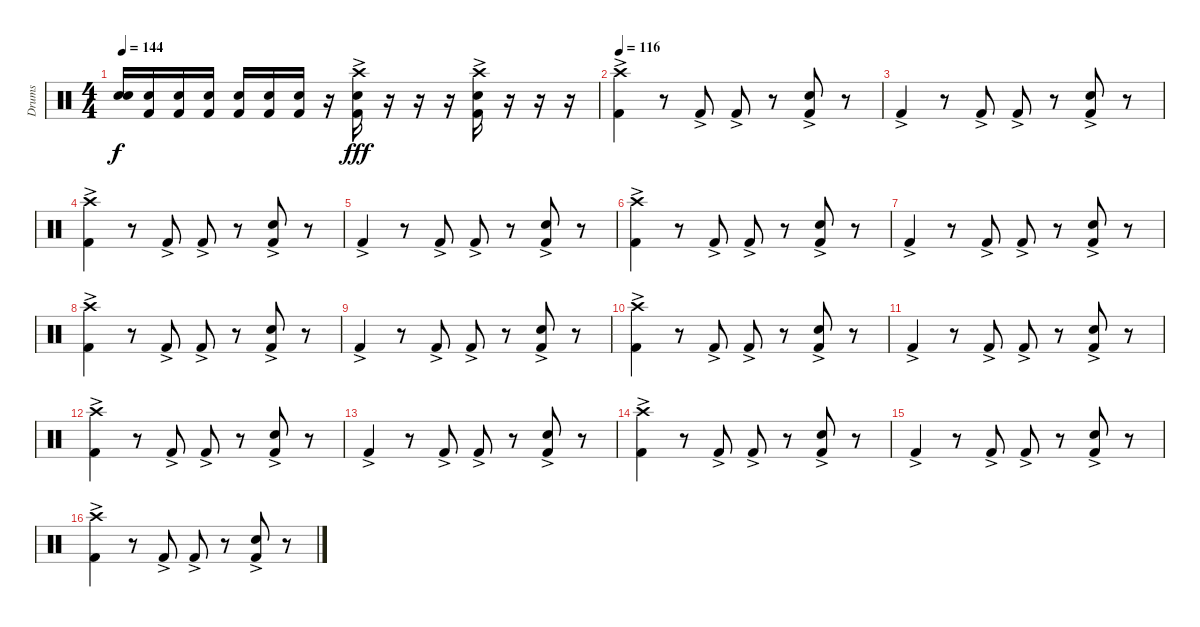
\track ("Drums" "Drums") {instrument percussion}
\staff {score}
\articulation defaults
\ts (4 4)
\tempo 144
\clef neutral
\ks c
("Electric Snare (hit)" "Electric Snare (hit)").16{dy f} ("Electric Snare (hit)" "Kick (hit) 2").16 ("Electric Snare (hit)" "Kick (hit) 2").16 ("Electric Snare (hit)" "Kick (hit) 2").16 ("Electric Snare (hit)" "Kick (hit) 2").16 ("Electric Snare (hit)" "Kick (hit) 2").16 ("Electric Snare (hit)" "Kick (hit) 2").16 r.16 ("Crash high (hit)"{ac} "Electric Snare (hit)"{ac} "Kick (hit) 2"{ac}).16{dy fff} r.16 r.16 r.16 ("Crash high (hit)"{ac} "Electric Snare (hit)"{ac} "Kick (hit) 2"{ac}).16 r.16 r.16 r.16 |
\tempo 116
("Crash high (hit)"{ac} "Kick (hit) 2"{ac}).4 r.8 "Kick (hit) 2"{ac}.8 "Kick (hit) 2"{ac}.8 r.8 ("Electric Snare (hit)"{ac} "Kick (hit) 2"{ac}).8 r.8 |
"Kick (hit) 2"{ac}.4 r.8 "Kick (hit) 2"{ac}.8 "Kick (hit) 2"{ac}.8 r.8 ("Electric Snare (hit)"{ac} "Kick (hit) 2"{ac}).8 r.8 |
("Crash high (hit)" "Kick (hit) 2"{ac}).4 r.8 "Kick (hit) 2"{ac}.8 "Kick (hit) 2"{ac}.8 r.8 ("Electric Snare (hit)"{ac} "Kick (hit) 2"{ac}).8 r.8 |
"Kick (hit) 2"{ac}.4 r.8 "Kick (hit) 2"{ac}.8 "Kick (hit) 2"{ac}.8 r.8 ("Electric Snare (hit)"{ac} "Kick (hit) 2"{ac}).8 r.8 |
("Crash high (hit)" "Kick (hit) 2"{ac}).4 r.8 "Kick (hit) 2"{ac}.8 "Kick (hit) 2"{ac}.8 r.8 ("Electric Snare (hit)"{ac} "Kick (hit) 2"{ac}).8 r.8 |
"Kick (hit) 2"{ac}.4 r.8 "Kick (hit) 2"{ac}.8 "Kick (hit) 2"{ac}.8 r.8 ("Electric Snare (hit)"{ac} "Kick (hit) 2"{ac}).8 r.8 |
("Crash high (hit)" "Kick (hit) 2"{ac}).4 r.8 "Kick (hit) 2"{ac}.8 "Kick (hit) 2"{ac}.8 r.8 ("Electric Snare (hit)"{ac} "Kick (hit) 2"{ac}).8 r.8 |
"Kick (hit) 2"{ac}.4 r.8 "Kick (hit) 2"{ac}.8 "Kick (hit) 2"{ac}.8 r.8 ("Electric Snare (hit)"{ac} "Kick (hit) 2"{ac}).8 r.8 |
("Crash high (hit)" "Kick (hit) 2"{ac}).4 r.8 "Kick (hit) 2"{ac}.8 "Kick (hit) 2"{ac}.8 r.8 ("Electric Snare (hit)"{ac} "Kick (hit) 2"{ac}).8 r.8 |
"Kick (hit) 2"{ac}.4 r.8 "Kick (hit) 2"{ac}.8 "Kick (hit) 2"{ac}.8 r.8 ("Electric Snare (hit)"{ac} "Kick (hit) 2"{ac}).8 r.8 |
("Crash high (hit)" "Kick (hit) 2"{ac}).4 r.8 "Kick (hit) 2"{ac}.8 "Kick (hit) 2"{ac}.8 r.8 ("Electric Snare (hit)"{ac} "Kick (hit) 2"{ac}).8 r.8 |
"Kick (hit) 2"{ac}.4 r.8 "Kick (hit) 2"{ac}.8 "Kick (hit) 2"{ac}.8 r.8 ("Electric Snare (hit)"{ac} "Kick (hit) 2"{ac}).8 r.8 |
("Crash high (hit)" "Kick (hit) 2"{ac}).4 r.8 "Kick (hit) 2"{ac}.8 "Kick (hit) 2"{ac}.8 r.8 ("Electric Snare (hit)"{ac} "Kick (hit) 2"{ac}).8 r.8 |
"Kick (hit) 2"{ac}.4 r.8 "Kick (hit) 2"{ac}.8 "Kick (hit) 2"{ac}.8 r.8 ("Electric Snare (hit)"{ac} "Kick (hit) 2"{ac}).8 r.8 |
("Crash high (hit)" "Kick (hit) 2"{ac}).4 r.8 "Kick (hit) 2"{ac}.8 "Kick (hit) 2"{ac}.8 r.8 ("Electric Snare (hit)"{ac} "Kick (hit) 2"{ac}).8 r.8
